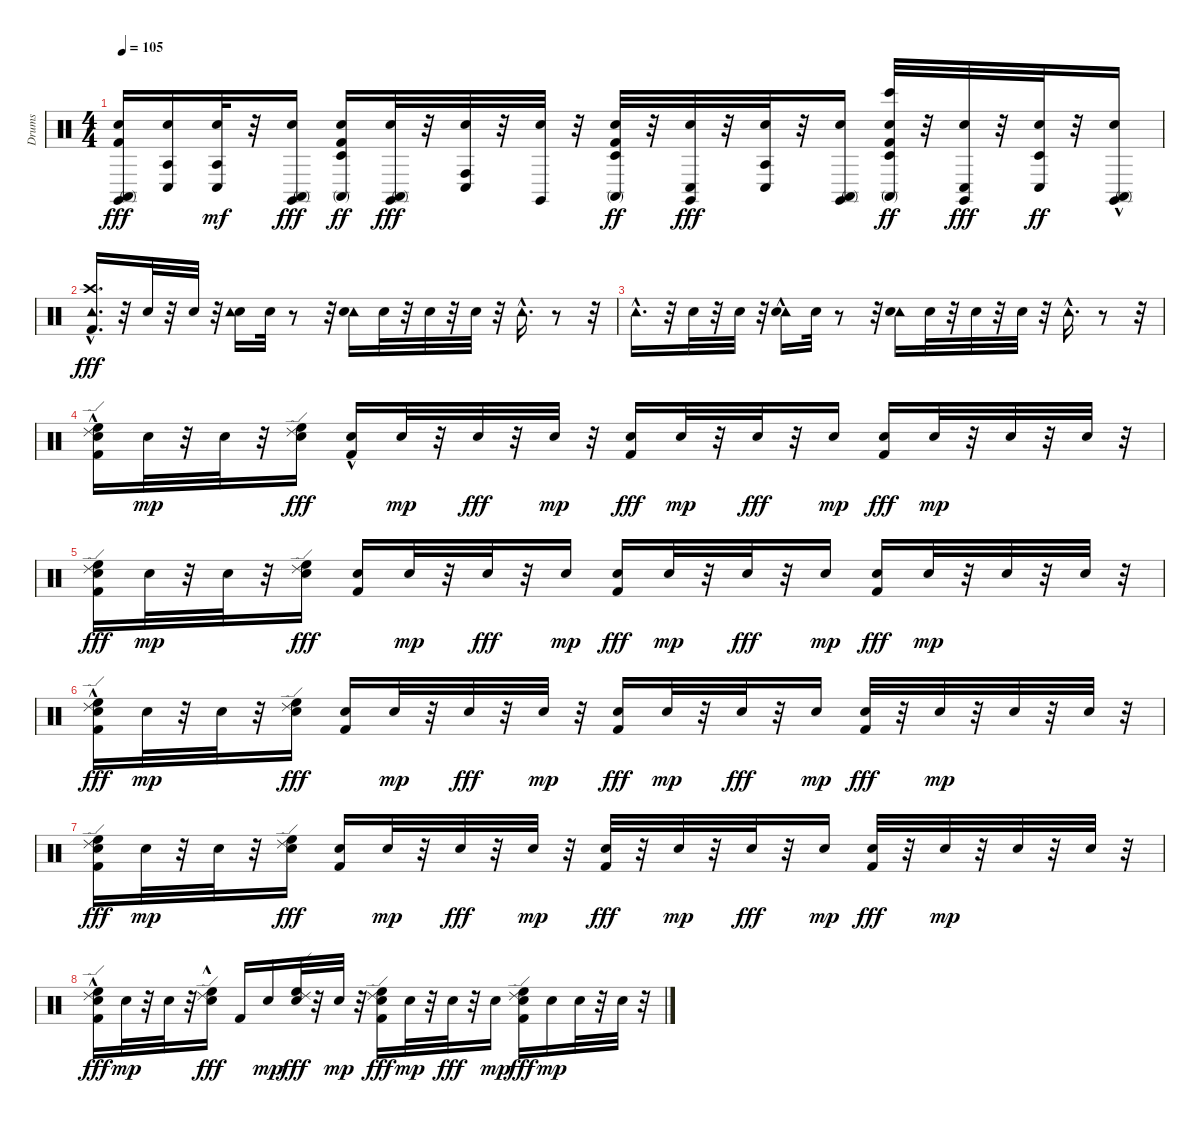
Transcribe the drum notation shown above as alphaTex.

\track ("Drums" "Drums") {instrument percussion}
\staff {score}
\articulation defaults
\ts (4 4)
\tempo 105
\clef neutral
\ks c
("Snare (hit) 2" "Kick (hit) 2" "Conga high (mute)" "Claves (hit)").16{dy fff} ("Conga low (hit)" "Snare (hit) 2" "Agogo tow (hit)").16 ("Snare (hit) 2" "Agogo tow (hit)" "Conga low (hit)").32{dy mf} r.32 ("Conga high (mute)" "Snare (hit) 2" "Claves (hit)").16{dy fff} ("Snare (hit) 2" "Kick (hit) 2" "Timbale low (hit)" "Conga high (mute)").16{dy ff} ("Snare (hit) 2" "Conga high (mute)" "Claves (hit)").32{dy fff} r.32 ("Snare (hit) 2" "Conga high (hit)" "Conga low (hit)").32 r.32 ("Snare (hit) 2" "Claves (hit)").32 r.32 ("Timbale low (hit)" "Snare (hit) 2" "Kick (hit) 2" "Conga high (mute)").32{dy ff} r.32 ("Conga low (hit)" "Snare (hit) 2" "Claves (hit)").32{dy fff} r.32 ("Agogo tow (hit)" "Snare (hit) 2" "Conga low (hit)").32 r.32 ("Snare (hit) 2" "Conga high (mute)" "Claves (hit)").16 ("Timbale low (hit)" "Snare (hit) 2" "Kick (hit) 2" "Conga high (mute)" "Bongo High (hit)").32{dy ff} r.32 ("Snare (hit) 2" "Conga low (hit)" "Claves (hit)").32{dy fff} r.32 ("Snare (hit) 2" "Timbale low (hit)" "Conga low (hit)").32{dy ff} r.32 ("Conga high (mute)" "Snare (hit) 2"{hac} "Claves (hit)").16 |
("Crash high (hit)" "Kick (hit) 2" "Tambourine (hit)"{hac}).16{d dy fff} r.32 "Snare (hit) 2".32 r.32 "Snare (hit) 2".32 r.32 ("Snare (hit) 2" "Tambourine (hit)").16 "Snare (hit) 2".32 r.8 r.32 ("Tambourine (hit)" "Snare (hit) 2").16 "Snare (hit) 2".32 r.32 "Snare (hit) 2".32 r.32 "Snare (hit) 2".32 r.32 "Tambourine (hit)"{hac}.16{d} r.8 r.32 |
"Tambourine (hit)"{hac}.16{d} r.32 "Snare (hit) 2".32 r.32 "Snare (hit) 2".32 r.32 ("Tambourine (hit)"{hac} "Snare (hit) 2").16 "Snare (hit) 2".32 r.8 r.32 ("Tambourine (hit)" "Snare (hit) 2").16 "Snare (hit) 2".32 r.32 "Snare (hit) 2".32 r.32 "Snare (hit) 2".32 r.32 "Tambourine (hit)"{hac}.16{d} r.8 r.32 |
("High Floor Tom (hit)"{hac} "Ride (edge) 2"{hac} "Snare (hit) 2" "Kick (hit) 2").16 "Snare (hit) 2".32{dy mp} r.32 "Snare (hit) 2".32 r.32 ("Ride (edge) 2" "High Floor Tom (hit)" "Snare (hit) 2").16{dy fff} ("Snare (hit) 2" "Kick (hit) 2"{hac}).16 "Snare (hit) 2".32{dy mp} r.32 "Snare (hit) 2".32{dy fff} r.32 "Snare (hit) 2".32{dy mp} r.32 ("Snare (hit) 2" "Kick (hit) 2").16{dy fff} "Snare (hit) 2".32{dy mp} r.32 "Snare (hit) 2".32{dy fff} r.32 "Snare (hit) 2".16{dy mp} ("Snare (hit) 2" "Kick (hit) 2").16{dy fff} "Snare (hit) 2".32{dy mp} r.32 "Snare (hit) 2".32 r.32 "Snare (hit) 2".32 r.32 |
("High Floor Tom (hit)" "Ride (edge) 2" "Snare (hit) 2" "Kick (hit) 2").16{dy fff} "Snare (hit) 2".32{dy mp} r.32 "Snare (hit) 2".32 r.32 ("Ride (edge) 2" "High Floor Tom (hit)" "Snare (hit) 2").16{dy fff} ("Snare (hit) 2" "Kick (hit) 2").16 "Snare (hit) 2".32{dy mp} r.32 "Snare (hit) 2".32{dy fff} r.32 "Snare (hit) 2".16{dy mp} ("Snare (hit) 2" "Kick (hit) 2").16{dy fff} "Snare (hit) 2".32{dy mp} r.32 "Snare (hit) 2".32{dy fff} r.32 "Snare (hit) 2".16{dy mp} ("Snare (hit) 2" "Kick (hit) 2").16{dy fff} "Snare (hit) 2".32{dy mp} r.32 "Snare (hit) 2".32 r.32 "Snare (hit) 2".32 r.32 |
("High Floor Tom (hit)" "Ride (edge) 2"{hac} "Kick (hit) 2" "Snare (hit) 2").16{dy fff} "Snare (hit) 2".32{dy mp} r.32 "Snare (hit) 2".32 r.32 ("High Floor Tom (hit)" "Ride (edge) 2" "Snare (hit) 2").16{dy fff} ("Snare (hit) 2" "Kick (hit) 2").16 "Snare (hit) 2".32{dy mp} r.32 "Snare (hit) 2".32{dy fff} r.32 "Snare (hit) 2".32{dy mp} r.32 ("Snare (hit) 2" "Kick (hit) 2").16{dy fff} "Snare (hit) 2".32{dy mp} r.32 "Snare (hit) 2".32{dy fff} r.32 "Snare (hit) 2".16{dy mp} ("Kick (hit) 2" "Snare (hit) 2").32{dy fff} r.32 "Snare (hit) 2".32{dy mp} r.32 "Snare (hit) 2".32 r.32 "Snare (hit) 2".32 r.32 |
("High Floor Tom (hit)" "Ride (edge) 2" "Kick (hit) 2" "Snare (hit) 2").16{dy fff} "Snare (hit) 2".32{dy mp} r.32 "Snare (hit) 2".32 r.32 ("High Floor Tom (hit)" "Ride (edge) 2" "Snare (hit) 2").16{dy fff} ("Snare (hit) 2" "Kick (hit) 2").16 "Snare (hit) 2".32{dy mp} r.32 "Snare (hit) 2".32{dy fff} r.32 "Snare (hit) 2".32{dy mp} r.32 ("Snare (hit) 2" "Kick (hit) 2").32{dy fff} r.32 "Snare (hit) 2".32{dy mp} r.32 "Snare (hit) 2".32{dy fff} r.32 "Snare (hit) 2".16{dy mp} ("Kick (hit) 2" "Snare (hit) 2").32{dy fff} r.32 "Snare (hit) 2".32{dy mp} r.32 "Snare (hit) 2".32 r.32 "Snare (hit) 2".32 r.32 |
("Ride (edge) 2"{hac} "High Floor Tom (hit)"{hac} "Snare (hit) 2" "Kick (hit) 2").16{dy fff} "Snare (hit) 2".32{dy mp} r.32 "Snare (hit) 2".32 r.32 ("High Floor Tom (hit)" "Ride (edge) 2" "Snare (hit) 2"{hac}).16{dy fff} "Kick (hit) 2".16 "Snare (hit) 2".16{dy mp} ("Ride (edge) 2" "High Floor Tom (hit)" "Snare (hit) 2").32{dy fff} r.32 "Snare (hit) 2".32{dy mp} r.32 ("Ride (edge) 2" "High Floor Tom (hit)" "Snare (hit) 2" "Kick (hit) 2").16{dy fff} "Snare (hit) 2".32{dy mp} r.32 "Snare (hit) 2".32{dy fff} r.32 "Snare (hit) 2".16{dy mp} ("High Floor Tom (hit)" "Ride (edge) 2" "Snare (hit) 2" "Kick (hit) 2").16{dy fff} "Snare (hit) 2".16{dy mp} "Snare (hit) 2".32 r.32 "Snare (hit) 2".32 r.32
